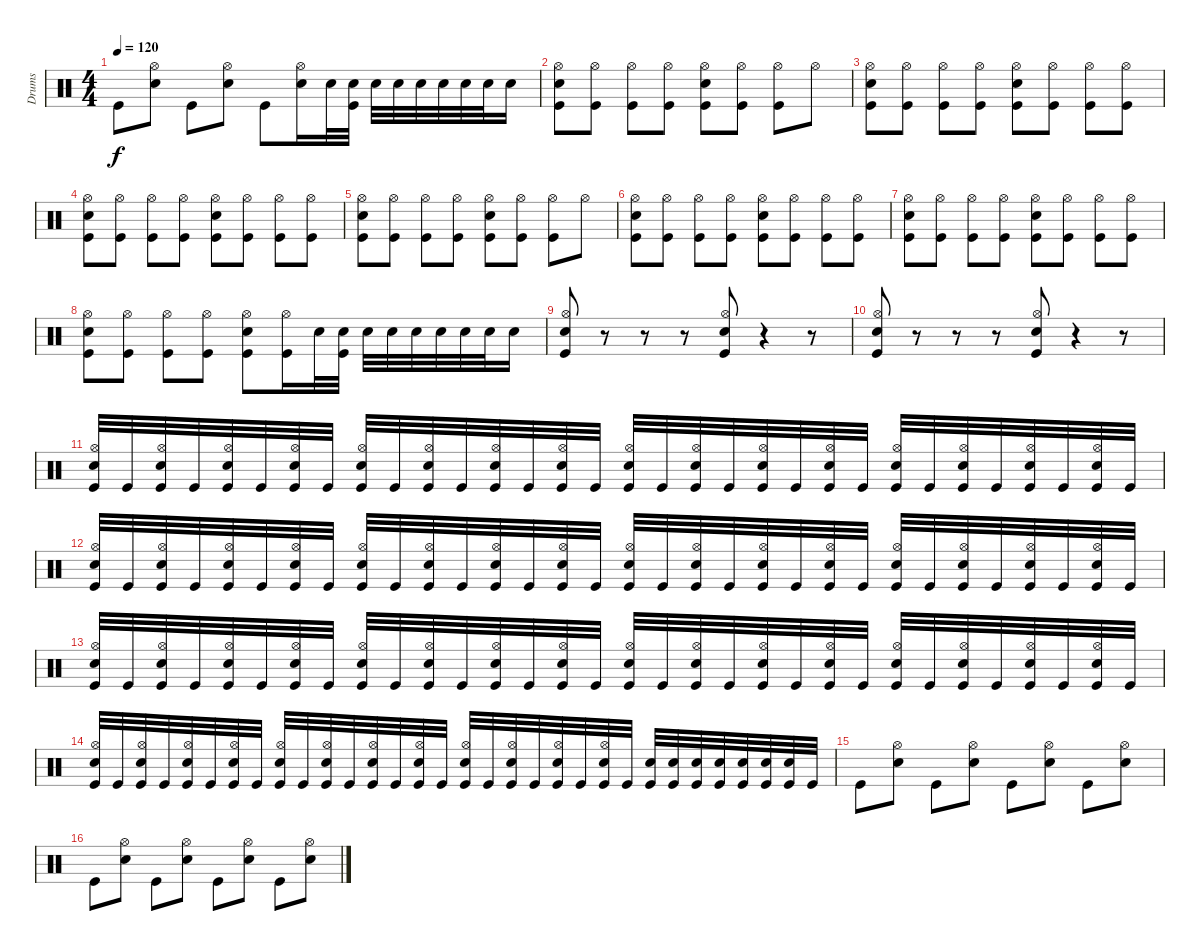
\track ("Drums" "Drums") {instrument percussion}
\staff {score}
\articulation defaults
\ts (4 4)
\tempo 120
\clef neutral
\ks c "Kick (hit)".8{dy f}
("Hi-Hat (open)" "Electric Snare (hit)").8 "Kick (hit)".8 ("Hi-Hat (open)" "Electric Snare (hit)").8 "Kick (hit)".8 ("Hi-Hat (open)" "Electric Snare (hit)").16 "Electric Snare (hit)".32 ("Electric Snare (hit)" "Kick (hit)").32 "Electric Snare (hit)".32 "Electric Snare (hit)".32 "Electric Snare (hit)".32 "Electric Snare (hit)".32 "Electric Snare (hit)".32 "Electric Snare (hit)".32 "Electric Snare (hit)".16 |
("Hi-Hat (open)" "Electric Snare (hit)" "Kick (hit)").8 ("Hi-Hat (open)" "Kick (hit)").8 ("Hi-Hat (open)" "Kick (hit)").8 ("Hi-Hat (open)" "Kick (hit)").8 ("Hi-Hat (open)" "Electric Snare (hit)" "Kick (hit)").8 ("Hi-Hat (open)" "Kick (hit)").8 ("Hi-Hat (open)" "Kick (hit)").8 "Hi-Hat (open)".8 |
("Hi-Hat (open)" "Electric Snare (hit)" "Kick (hit)").8 ("Hi-Hat (open)" "Kick (hit)").8 ("Hi-Hat (open)" "Kick (hit)").8 ("Hi-Hat (open)" "Kick (hit)").8 ("Hi-Hat (open)" "Electric Snare (hit)" "Kick (hit)").8 ("Hi-Hat (open)" "Kick (hit)").8 ("Hi-Hat (open)" "Kick (hit)").8 ("Hi-Hat (open)" "Kick (hit)").8 |
("Hi-Hat (open)" "Electric Snare (hit)" "Kick (hit)").8 ("Hi-Hat (open)" "Kick (hit)").8 ("Hi-Hat (open)" "Kick (hit)").8 ("Hi-Hat (open)" "Kick (hit)").8 ("Hi-Hat (open)" "Electric Snare (hit)" "Kick (hit)").8 ("Hi-Hat (open)" "Kick (hit)").8 ("Hi-Hat (open)" "Kick (hit)").8 ("Hi-Hat (open)" "Kick (hit)").8 |
("Hi-Hat (open)" "Electric Snare (hit)" "Kick (hit)").8 ("Hi-Hat (open)" "Kick (hit)").8 ("Hi-Hat (open)" "Kick (hit)").8 ("Hi-Hat (open)" "Kick (hit)").8 ("Hi-Hat (open)" "Electric Snare (hit)" "Kick (hit)").8 ("Hi-Hat (open)" "Kick (hit)").8 ("Hi-Hat (open)" "Kick (hit)").8 "Hi-Hat (open)".8 |
("Hi-Hat (open)" "Electric Snare (hit)" "Kick (hit)").8 ("Hi-Hat (open)" "Kick (hit)").8 ("Hi-Hat (open)" "Kick (hit)").8 ("Hi-Hat (open)" "Kick (hit)").8 ("Hi-Hat (open)" "Electric Snare (hit)" "Kick (hit)").8 ("Hi-Hat (open)" "Kick (hit)").8 ("Hi-Hat (open)" "Kick (hit)").8 ("Hi-Hat (open)" "Kick (hit)").8 |
("Hi-Hat (open)" "Electric Snare (hit)" "Kick (hit)").8 ("Hi-Hat (open)" "Kick (hit)").8 ("Hi-Hat (open)" "Kick (hit)").8 ("Hi-Hat (open)" "Kick (hit)").8 ("Hi-Hat (open)" "Electric Snare (hit)" "Kick (hit)").8 ("Hi-Hat (open)" "Kick (hit)").8 ("Hi-Hat (open)" "Kick (hit)").8 ("Hi-Hat (open)" "Kick (hit)").8 |
("Hi-Hat (open)" "Electric Snare (hit)" "Kick (hit)").8 ("Hi-Hat (open)" "Kick (hit)").8 ("Hi-Hat (open)" "Kick (hit)").8 ("Hi-Hat (open)" "Kick (hit)").8 ("Hi-Hat (open)" "Electric Snare (hit)" "Kick (hit)").8 ("Hi-Hat (open)" "Kick (hit)").16 "Electric Snare (hit)".32 ("Electric Snare (hit)" "Kick (hit)").32 "Electric Snare (hit)".32 "Electric Snare (hit)".32 "Electric Snare (hit)".32 "Electric Snare (hit)".32 "Electric Snare (hit)".32 "Electric Snare (hit)".32 "Electric Snare (hit)".16 |
("Hi-Hat (open)" "Electric Snare (hit)" "Kick (hit)").8 r.8 r.8 r.8 ("Hi-Hat (open)" "Electric Snare (hit)" "Kick (hit)").8 r.4 r.8 |
("Hi-Hat (open)" "Electric Snare (hit)" "Kick (hit)").8 r.8 r.8 r.8 ("Hi-Hat (open)" "Electric Snare (hit)" "Kick (hit)").8 r.4 r.8 |
("Hi-Hat (open)" "Electric Snare (hit)" "Kick (hit)").32 "Kick (hit)".32 ("Hi-Hat (open)" "Electric Snare (hit)" "Kick (hit)").32 "Kick (hit)".32 ("Hi-Hat (open)" "Electric Snare (hit)" "Kick (hit)").32 "Kick (hit)".32 ("Hi-Hat (open)" "Electric Snare (hit)" "Kick (hit)").32 "Kick (hit)".32 ("Hi-Hat (open)" "Electric Snare (hit)" "Kick (hit)").32 "Kick (hit)".32 ("Hi-Hat (open)" "Electric Snare (hit)" "Kick (hit)").32 "Kick (hit)".32 ("Hi-Hat (open)" "Electric Snare (hit)" "Kick (hit)").32 "Kick (hit)".32 ("Hi-Hat (open)" "Electric Snare (hit)" "Kick (hit)").32 "Kick (hit)".32 ("Hi-Hat (open)" "Electric Snare (hit)" "Kick (hit)").32 "Kick (hit)".32 ("Hi-Hat (open)" "Electric Snare (hit)" "Kick (hit)").32 "Kick (hit)".32 ("Hi-Hat (open)" "Electric Snare (hit)" "Kick (hit)").32 "Kick (hit)".32 ("Hi-Hat (open)" "Electric Snare (hit)" "Kick (hit)").32 "Kick (hit)".32 ("Hi-Hat (open)" "Electric Snare (hit)" "Kick (hit)").32 "Kick (hit)".32 ("Hi-Hat (open)" "Electric Snare (hit)" "Kick (hit)").32 "Kick (hit)".32 ("Hi-Hat (open)" "Electric Snare (hit)" "Kick (hit)").32 "Kick (hit)".32 ("Hi-Hat (open)" "Electric Snare (hit)" "Kick (hit)").32 "Kick (hit)".32 |
("Hi-Hat (open)" "Electric Snare (hit)" "Kick (hit)").32 "Kick (hit)".32 ("Hi-Hat (open)" "Electric Snare (hit)" "Kick (hit)").32 "Kick (hit)".32 ("Hi-Hat (open)" "Electric Snare (hit)" "Kick (hit)").32 "Kick (hit)".32 ("Hi-Hat (open)" "Electric Snare (hit)" "Kick (hit)").32 "Kick (hit)".32 ("Hi-Hat (open)" "Electric Snare (hit)" "Kick (hit)").32 "Kick (hit)".32 ("Hi-Hat (open)" "Electric Snare (hit)" "Kick (hit)").32 "Kick (hit)".32 ("Hi-Hat (open)" "Electric Snare (hit)" "Kick (hit)").32 "Kick (hit)".32 ("Hi-Hat (open)" "Electric Snare (hit)" "Kick (hit)").32 "Kick (hit)".32 ("Hi-Hat (open)" "Electric Snare (hit)" "Kick (hit)").32 "Kick (hit)".32 ("Hi-Hat (open)" "Electric Snare (hit)" "Kick (hit)").32 "Kick (hit)".32 ("Hi-Hat (open)" "Electric Snare (hit)" "Kick (hit)").32 "Kick (hit)".32 ("Hi-Hat (open)" "Electric Snare (hit)" "Kick (hit)").32 "Kick (hit)".32 ("Hi-Hat (open)" "Electric Snare (hit)" "Kick (hit)").32 "Kick (hit)".32 ("Hi-Hat (open)" "Electric Snare (hit)" "Kick (hit)").32 "Kick (hit)".32 ("Hi-Hat (open)" "Electric Snare (hit)" "Kick (hit)").32 "Kick (hit)".32 ("Hi-Hat (open)" "Electric Snare (hit)" "Kick (hit)").32 "Kick (hit)".32 |
("Hi-Hat (open)" "Electric Snare (hit)" "Kick (hit)").32 "Kick (hit)".32 ("Hi-Hat (open)" "Electric Snare (hit)" "Kick (hit)").32 "Kick (hit)".32 ("Hi-Hat (open)" "Electric Snare (hit)" "Kick (hit)").32 "Kick (hit)".32 ("Hi-Hat (open)" "Electric Snare (hit)" "Kick (hit)").32 "Kick (hit)".32 ("Hi-Hat (open)" "Electric Snare (hit)" "Kick (hit)").32 "Kick (hit)".32 ("Hi-Hat (open)" "Electric Snare (hit)" "Kick (hit)").32 "Kick (hit)".32 ("Hi-Hat (open)" "Electric Snare (hit)" "Kick (hit)").32 "Kick (hit)".32 ("Hi-Hat (open)" "Electric Snare (hit)" "Kick (hit)").32 "Kick (hit)".32 ("Hi-Hat (open)" "Electric Snare (hit)" "Kick (hit)").32 "Kick (hit)".32 ("Hi-Hat (open)" "Electric Snare (hit)" "Kick (hit)").32 "Kick (hit)".32 ("Hi-Hat (open)" "Electric Snare (hit)" "Kick (hit)").32 "Kick (hit)".32 ("Hi-Hat (open)" "Electric Snare (hit)" "Kick (hit)").32 "Kick (hit)".32 ("Hi-Hat (open)" "Electric Snare (hit)" "Kick (hit)").32 "Kick (hit)".32 ("Hi-Hat (open)" "Electric Snare (hit)" "Kick (hit)").32 "Kick (hit)".32 ("Hi-Hat (open)" "Electric Snare (hit)" "Kick (hit)").32 "Kick (hit)".32 ("Hi-Hat (open)" "Electric Snare (hit)" "Kick (hit)").32 "Kick (hit)".32 |
("Hi-Hat (open)" "Electric Snare (hit)" "Kick (hit)").32 "Kick (hit)".32 ("Hi-Hat (open)" "Electric Snare (hit)" "Kick (hit)").32 "Kick (hit)".32 ("Hi-Hat (open)" "Electric Snare (hit)" "Kick (hit)").32 "Kick (hit)".32 ("Hi-Hat (open)" "Electric Snare (hit)" "Kick (hit)").32 "Kick (hit)".32 ("Hi-Hat (open)" "Electric Snare (hit)" "Kick (hit)").32 "Kick (hit)".32 ("Hi-Hat (open)" "Electric Snare (hit)" "Kick (hit)").32 "Kick (hit)".32 ("Hi-Hat (open)" "Electric Snare (hit)" "Kick (hit)").32 "Kick (hit)".32 ("Hi-Hat (open)" "Electric Snare (hit)" "Kick (hit)").32 "Kick (hit)".32 ("Hi-Hat (open)" "Electric Snare (hit)" "Kick (hit)").32 "Kick (hit)".32 ("Hi-Hat (open)" "Electric Snare (hit)" "Kick (hit)").32 "Kick (hit)".32 ("Hi-Hat (open)" "Electric Snare (hit)" "Kick (hit)").32 "Kick (hit)".32 ("Hi-Hat (open)" "Electric Snare (hit)" "Kick (hit)").32 "Kick (hit)".32 ("Electric Snare (hit)" "Kick (hit)").32 ("Electric Snare (hit)" "Kick (hit)").32 ("Electric Snare (hit)" "Kick (hit)").32 ("Electric Snare (hit)" "Kick (hit)").32 ("Electric Snare (hit)" "Kick (hit)").32 ("Electric Snare (hit)" "Kick (hit)").32 ("Electric Snare (hit)" "Kick (hit)").32 "Kick (hit)".32 |
"Kick (hit)".8 ("Hi-Hat (open)" "Electric Snare (hit)").8 "Kick (hit)".8 ("Hi-Hat (open)" "Electric Snare (hit)").8 "Kick (hit)".8 ("Hi-Hat (open)" "Electric Snare (hit)").8 "Kick (hit)".8 ("Hi-Hat (open)" "Electric Snare (hit)").8 |
"Kick (hit)".8 ("Hi-Hat (open)" "Electric Snare (hit)").8 "Kick (hit)".8 ("Hi-Hat (open)" "Electric Snare (hit)").8 "Kick (hit)".8 ("Hi-Hat (open)" "Electric Snare (hit)").8 "Kick (hit)".8 ("Hi-Hat (open)" "Electric Snare (hit)").8
